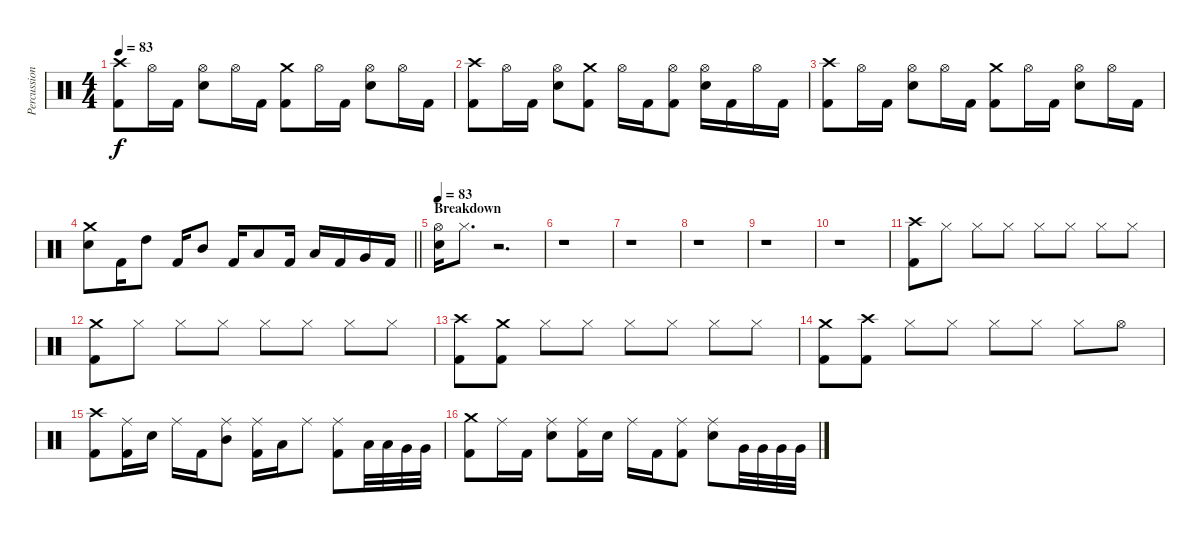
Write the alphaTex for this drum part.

\track ("Percussion" "Percussion") {instrument percussion}
\staff {score}
\articulation defaults
\ts (4 4)
\tempo 83
\clef neutral
\ks c
("Crash high (hit)" "Kick (hit) 2").8{dy f} "Hi-Hat (open)".16 "Kick (hit) 2".16 ("Hi-Hat (open)" "Electric Snare (hit)").8 "Hi-Hat (open)".16 "Kick (hit) 2".16 ("Crash medium (hit)" "Kick (hit) 2").8 "Hi-Hat (open)".16 "Kick (hit) 2".16 ("Hi-Hat (open)" "Electric Snare (hit)").8 "Hi-Hat (open)".16 "Kick (hit) 2".16 |
("Crash high (hit)" "Kick (hit) 2").8 "Hi-Hat (open)".16 "Kick (hit) 2".16 ("Hi-Hat (open)" "Electric Snare (hit)").8 ("Crash medium (hit)" "Kick (hit) 2").8 "Hi-Hat (open)".16 "Kick (hit) 2".16 ("Hi-Hat (open)" "Kick (hit) 2").8 ("Hi-Hat (open)" "Electric Snare (hit)").16 "Kick (hit) 2".16 "Hi-Hat (open)".16 "Kick (hit) 2".16 |
("Crash high (hit)" "Kick (hit) 2").8 "Hi-Hat (open)".16 "Kick (hit) 2".16 ("Hi-Hat (open)" "Electric Snare (hit)").8 "Hi-Hat (open)".16 "Kick (hit) 2".16 ("Crash medium (hit)" "Kick (hit) 2").8 "Hi-Hat (open)".16 "Kick (hit) 2".16 ("Hi-Hat (open)" "Electric Snare (hit)").8 "Hi-Hat (open)".16 "Kick (hit) 2".16 |
\barLineRight lightlight
("Crash medium (hit)" "Electric Snare (hit)").8 "Kick (hit) 2".16 "High Tom (hit)".8 "Kick (hit) 2".16 "Mid Tom (hit)".8 "Kick (hit) 2".16 "Low Tom (hit)".8 "Kick (hit) 2".16 "Low Tom (hit)".16 "Kick (hit) 2".16 "Very Low Tom (hit)".16 "Kick (hit) 2".16 |
\section ("" "Breakdown")
\tempo 83
("Hi-Hat (open)" "Electric Snare (hit)").16 "Hi-Hat (closed)".8{d} r.2{d} |
r.1 |
r.1 |
r.1 |
r.1 |
r.1 |
("Crash high (hit)" "Kick (hit) 2").8 "Hi-Hat (closed)".8 "Hi-Hat (closed)".8 "Hi-Hat (closed)".8 "Hi-Hat (closed)".8 "Hi-Hat (closed)".8 "Hi-Hat (closed)".8 "Hi-Hat (closed)".8 |
("Crash medium (hit)" "Kick (hit) 2").8 "Hi-Hat (closed)".8 "Hi-Hat (closed)".8 "Hi-Hat (closed)".8 "Hi-Hat (closed)".8 "Hi-Hat (closed)".8 "Hi-Hat (closed)".8 "Hi-Hat (closed)".8 |
("Crash high (hit)" "Kick (hit) 2").8 ("Crash medium (hit)" "Kick (hit) 2").8 "Hi-Hat (closed)".8 "Hi-Hat (closed)".8 "Hi-Hat (closed)".8 "Hi-Hat (closed)".8 "Hi-Hat (closed)".8 "Hi-Hat (closed)".8 |
("Crash medium (hit)" "Kick (hit) 2").8 ("Crash high (hit)" "Kick (hit) 2").8 "Hi-Hat (closed)".8 "Hi-Hat (closed)".8 "Hi-Hat (closed)".8 "Hi-Hat (closed)".8 "Hi-Hat (closed)".8 "Hi-Hat (open)".8 |
("Crash high (hit)" "Kick (hit) 2").8 ("Ride (middle)" "Kick (hit) 2").16 "Electric Snare (hit)".16 "Ride (middle)".16 "Kick (hit) 2".16 ("Ride (middle)" "Mid Tom (hit)").8 ("Ride (middle)" "Kick (hit) 2").16 "Low Tom (hit)".16 "Ride (middle)".8 ("Ride (middle)" "Kick (hit) 2").8 "Low Tom (hit)".32 "Low Tom (hit)".32 "Very Low Tom (hit)".32 "Very Low Tom (hit)".32 |
("Crash medium (hit)" "Kick (hit) 2").8 "Ride (middle)".16 "Kick (hit) 2".16 ("Ride (middle)" "Electric Snare (hit)").8 ("Ride (middle)" "Kick (hit) 2").16 "Electric Snare (hit)".16 "Ride (middle)".16 "Kick (hit) 2".16 ("Ride (middle)" "Kick (hit) 2").8 ("Ride (middle)" "Electric Snare (hit)").8 "Very Low Tom (hit)".32 "Very Low Tom (hit)".32 "Very Low Tom (hit)".32 "Very Low Tom (hit)".32
